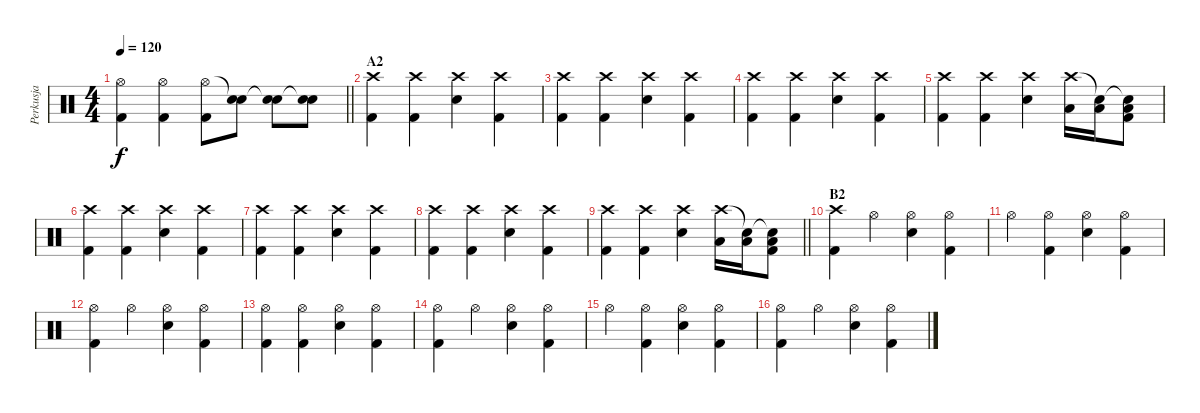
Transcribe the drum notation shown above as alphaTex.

\track ("Perkusja" "Perkusja") {instrument percussion}
\staff {score}
\articulation defaults
\ts (4 4)
\tempo 120
\clef neutral
\barLineRight lightlight
\ks c
("Hi-Hat (open)" "Kick (hit) 2").4{dy f} ("Hi-Hat (open)" "Kick (hit) 2").4 ("Hi-Hat (open)" "Kick (hit) 2").8 ("Snare (hit)"{t} "Electric Snare (hit)").8 ("Snare (hit)"{t} "Electric Snare (hit)").8 ("Snare (hit)"{t} "Electric Snare (hit)").8 |
\section ("" "A2")
("Crash high (hit)" "Kick (hit) 2").4 ("Crash high (hit)" "Kick (hit) 2").4 ("Crash high (hit)" "Electric Snare (hit)").4 ("Crash high (hit)" "Kick (hit) 2").4 |
("Crash high (hit)" "Kick (hit) 2").4 ("Crash high (hit)" "Kick (hit) 2").4 ("Crash high (hit)" "Electric Snare (hit)").4 ("Crash high (hit)" "Kick (hit) 2").4 |
("Crash high (hit)" "Kick (hit) 2").4 ("Crash high (hit)" "Kick (hit) 2").4 ("Crash high (hit)" "Electric Snare (hit)").4 ("Crash high (hit)" "Kick (hit) 2").4 |
("Crash high (hit)" "Kick (hit) 2").4 ("Crash high (hit)" "Kick (hit) 2").4 ("Crash high (hit)" "Electric Snare (hit)").4 ("Crash high (hit)" "Low Tom (hit)").16 ("Snare (hit)"{t} "Low Tom (hit)").16 ("Snare (hit)"{t} "Low Floor Tom (hit)" "Kick (hit) 2").8 |
("Crash high (hit)" "Kick (hit) 2").4 ("Crash high (hit)" "Kick (hit) 2").4 ("Crash high (hit)" "Electric Snare (hit)").4 ("Crash high (hit)" "Kick (hit) 2").4 |
("Crash high (hit)" "Kick (hit) 2").4 ("Crash high (hit)" "Kick (hit) 2").4 ("Crash high (hit)" "Electric Snare (hit)").4 ("Crash high (hit)" "Kick (hit) 2").4 |
("Crash high (hit)" "Kick (hit) 2").4 ("Crash high (hit)" "Kick (hit) 2").4 ("Crash high (hit)" "Electric Snare (hit)").4 ("Crash high (hit)" "Kick (hit) 2").4 |
\barLineRight lightlight
("Crash high (hit)" "Kick (hit) 2").4 ("Crash high (hit)" "Kick (hit) 2").4 ("Crash high (hit)" "Electric Snare (hit)").4 ("Crash high (hit)" "Low Tom (hit)").16 ("Snare (hit)"{t} "Low Tom (hit)").16 ("Snare (hit)"{t} "Low Floor Tom (hit)" "Kick (hit) 2").8 |
\section ("" "B2")
("Crash high (hit)" "Kick (hit) 2").4 "Hi-Hat (open)".4 ("Hi-Hat (open)" "Electric Snare (hit)").4 ("Hi-Hat (open)" "Kick (hit) 2").4 |
"Hi-Hat (open)".4 ("Hi-Hat (open)" "Kick (hit) 2").4 ("Hi-Hat (open)" "Electric Snare (hit)").4 ("Hi-Hat (open)" "Kick (hit) 2").4 |
("Hi-Hat (open)" "Kick (hit) 2").4 "Hi-Hat (open)".4 ("Hi-Hat (open)" "Electric Snare (hit)").4 ("Hi-Hat (open)" "Kick (hit) 2").4 |
("Hi-Hat (open)" "Kick (hit) 2").4 ("Hi-Hat (open)" "Kick (hit) 2").4 ("Hi-Hat (open)" "Electric Snare (hit)").4 ("Hi-Hat (open)" "Kick (hit) 2").4 |
("Hi-Hat (open)" "Kick (hit) 2").4 "Hi-Hat (open)".4 ("Hi-Hat (open)" "Electric Snare (hit)").4 ("Hi-Hat (open)" "Kick (hit) 2").4 |
"Hi-Hat (open)".4 ("Hi-Hat (open)" "Kick (hit) 2").4 ("Hi-Hat (open)" "Electric Snare (hit)").4 ("Hi-Hat (open)" "Kick (hit) 2").4 |
("Hi-Hat (open)" "Kick (hit) 2").4 "Hi-Hat (open)".4 ("Hi-Hat (open)" "Electric Snare (hit)").4 ("Hi-Hat (open)" "Kick (hit) 2").4
